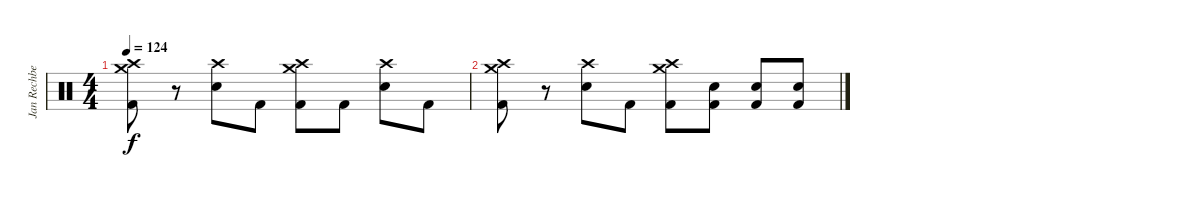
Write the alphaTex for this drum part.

\track ("Jan Rechberger" "Jan Rechbe") {instrument percussion}
\staff {score}
\articulation defaults
\ts (4 4)
\tempo 124
\clef neutral
\ks c
("Crash medium (hit)" "Crash high (hit)" "Kick (hit) 2").8{dy f} r.8 ("Crash high (hit)" "Snare (hit) 2").8 "Kick (hit) 2".8 ("Crash high (hit)" "Crash medium (hit)" "Kick (hit) 2").8 "Kick (hit) 2".8 ("Crash high (hit)" "Snare (hit) 2").8 "Kick (hit) 2".8 |
("Crash medium (hit)" "Crash high (hit)" "Kick (hit) 2").8 r.8 ("Crash high (hit)" "Snare (hit) 2").8 "Kick (hit) 2".8 ("Crash high (hit)" "Crash medium (hit)" "Kick (hit) 2").8 ("Snare (hit) 2" "Kick (hit) 2").8 ("Snare (hit) 2" "Kick (hit) 2").8 ("Snare (hit) 2" "Kick (hit) 2").8
